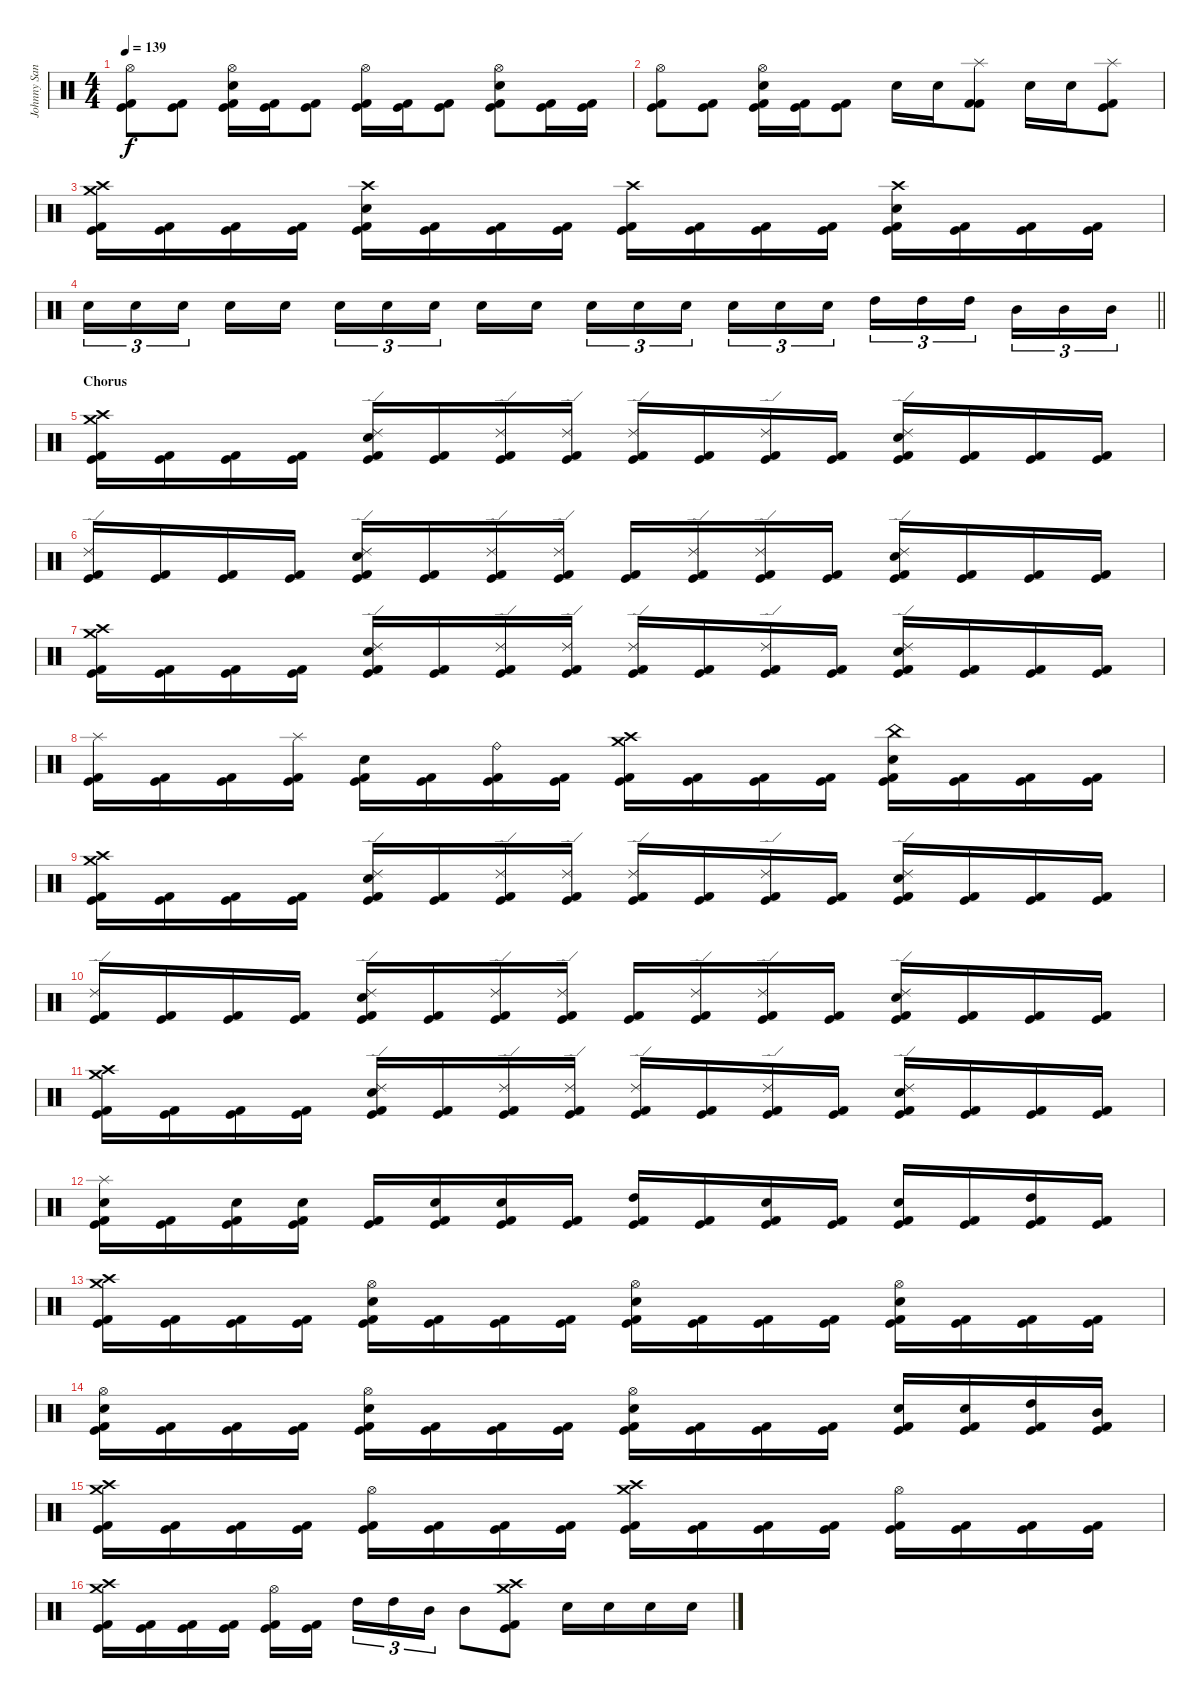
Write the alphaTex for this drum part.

\track ("Johnny Sandin" "Johnny San") {instrument percussion}
\staff {score}
\articulation defaults
\ts (4 4)
\tempo 139
\clef neutral
\ks c
("Hi-Hat (open)" "Kick (hit) 2" "Kick (hit)").8{dy f} ("Kick (hit) 2" "Kick (hit)").8 ("Hi-Hat (open)" "Snare (hit) 2" "Kick (hit) 2" "Kick (hit)").16 ("Kick (hit) 2" "Kick (hit)").16 ("Kick (hit) 2" "Kick (hit)").8 ("Hi-Hat (open)" "Kick (hit) 2" "Kick (hit)").16 ("Kick (hit) 2" "Kick (hit)").16 ("Kick (hit) 2" "Kick (hit)").8 ("Hi-Hat (open)" "Snare (hit) 2" "Kick (hit) 2" "Kick (hit)").8 ("Kick (hit) 2" "Kick (hit)").16 ("Kick (hit) 2" "Kick (hit)").16 |
("Hi-Hat (open)" "Kick (hit) 2" "Kick (hit)").8 ("Kick (hit) 2" "Kick (hit)").8 ("Hi-Hat (open)" "Snare (hit) 2" "Kick (hit) 2" "Kick (hit)").16 ("Kick (hit) 2" "Kick (hit)").16 ("Kick (hit) 2" "Kick (hit)").8 "Snare (hit) 2".16 "Snare (hit) 2".16 ("Splash (hit)" "Kick (hit) 2" "Kick (hit) 2").8 "Snare (hit) 2".16 "Snare (hit) 2".16 ("Splash (hit)" "Kick (hit) 2" "Kick (hit)").8 |
("Crash medium (hit)" "Crash high (hit)" "Kick (hit) 2" "Kick (hit)").16 ("Kick (hit) 2" "Kick (hit)").16 ("Kick (hit) 2" "Kick (hit)").16 ("Kick (hit) 2" "Kick (hit)").16 ("Crash high (hit)" "Snare (hit) 2" "Kick (hit) 2" "Kick (hit)").16 ("Kick (hit) 2" "Kick (hit)").16 ("Kick (hit) 2" "Kick (hit)").16 ("Kick (hit) 2" "Kick (hit)").16 ("Crash high (hit)" "Kick (hit) 2" "Kick (hit)").16 ("Kick (hit) 2" "Kick (hit)").16 ("Kick (hit) 2" "Kick (hit)").16 ("Kick (hit) 2" "Kick (hit)").16 ("Crash high (hit)" "Snare (hit) 2" "Kick (hit) 2" "Kick (hit)").16 ("Kick (hit) 2" "Kick (hit)").16 ("Kick (hit) 2" "Kick (hit)").16 ("Kick (hit) 2" "Kick (hit)").16 |
\barLineRight lightlight "Snare (hit) 2".16{tu (3 2)} "Snare (hit) 2".16{tu (3 2)} "Snare (hit) 2".16{tu (3 2)} "Snare (hit) 2".16 "Snare (hit) 2".16 "Snare (hit) 2".16{tu (3 2)} "Snare (hit) 2".16{tu (3 2)} "Snare (hit) 2".16{tu (3 2)} "Snare (hit) 2".16 "Snare (hit) 2".16 "Snare (hit) 2".16{tu (3 2)} "Snare (hit) 2".16{tu (3 2)} "Snare (hit) 2".16{tu (3 2)} "Snare (hit) 2".16{tu (3 2)} "Snare (hit) 2".16{tu (3 2)} "Snare (hit) 2".16{tu (3 2)} "High Tom (hit)".16{tu (3 2)} "High Tom (hit)".16{tu (3 2)} "High Tom (hit)".16{tu (3 2)} "Mid Tom (hit)".16{tu (3 2)} "Mid Tom (hit)".16{tu (3 2)} "Mid Tom (hit)".16{tu (3 2)}
|
\section ("" "Chorus")
("Crash medium (hit)" "Crash high (hit)" "Kick (hit) 2" "Kick (hit)").16 ("Kick (hit) 2" "Kick (hit)").16 ("Kick (hit) 2" "Kick (hit)").16 ("Kick (hit) 2" "Kick (hit)").16 ("Ride (edge) 2" "Snare (hit) 2" "Kick (hit) 2" "Kick (hit)").16 ("Kick (hit) 2" "Kick (hit)").16 ("Ride (edge) 2" "Kick (hit) 2" "Kick (hit)").16 ("Ride (edge) 2" "Kick (hit) 2" "Kick (hit)").16 ("Ride (edge) 2" "Kick (hit) 2" "Kick (hit)").16 ("Kick (hit) 2" "Kick (hit)").16 ("Ride (edge) 2" "Kick (hit) 2" "Kick (hit)").16 ("Kick (hit) 2" "Kick (hit)").16 ("Ride (edge) 2" "Snare (hit) 2" "Kick (hit) 2" "Kick (hit)").16 ("Kick (hit) 2" "Kick (hit)").16 ("Kick (hit) 2" "Kick (hit)").16 ("Kick (hit) 2" "Kick (hit)").16 |
("Ride (edge) 2" "Kick (hit) 2" "Kick (hit)").16 ("Kick (hit) 2" "Kick (hit)").16 ("Kick (hit) 2" "Kick (hit)").16 ("Kick (hit) 2" "Kick (hit)").16 ("Ride (edge) 2" "Snare (hit) 2" "Kick (hit) 2" "Kick (hit)").16 ("Kick (hit) 2" "Kick (hit)").16 ("Ride (edge) 2" "Kick (hit) 2" "Kick (hit)").16 ("Ride (edge) 2" "Kick (hit) 2" "Kick (hit)").16 ("Kick (hit) 2" "Kick (hit)").16 ("Ride (edge) 2" "Kick (hit) 2" "Kick (hit)").16 ("Ride (edge) 2" "Kick (hit) 2" "Kick (hit)").16 ("Kick (hit) 2" "Kick (hit)").16 ("Ride (edge) 2" "Snare (hit) 2" "Kick (hit) 2" "Kick (hit)").16 ("Kick (hit) 2" "Kick (hit)").16 ("Kick (hit) 2" "Kick (hit)").16 ("Kick (hit) 2" "Kick (hit)").16 |
("Crash medium (hit)" "Crash high (hit)" "Kick (hit) 2" "Kick (hit)").16 ("Kick (hit) 2" "Kick (hit)").16 ("Kick (hit) 2" "Kick (hit)").16 ("Kick (hit) 2" "Kick (hit)").16 ("Ride (edge) 2" "Snare (hit) 2" "Kick (hit) 2" "Kick (hit)").16 ("Kick (hit) 2" "Kick (hit)").16 ("Ride (edge) 2" "Kick (hit) 2" "Kick (hit)").16 ("Ride (edge) 2" "Kick (hit) 2" "Kick (hit)").16 ("Ride (edge) 2" "Kick (hit) 2" "Kick (hit)").16 ("Kick (hit) 2" "Kick (hit)").16 ("Ride (edge) 2" "Kick (hit) 2" "Kick (hit)").16 ("Kick (hit) 2" "Kick (hit)").16 ("Ride (edge) 2" "Snare (hit) 2" "Kick (hit) 2" "Kick (hit)").16 ("Kick (hit) 2" "Kick (hit)").16 ("Kick (hit) 2" "Kick (hit)").16 ("Kick (hit) 2" "Kick (hit)").16 |
("Splash (hit)" "Kick (hit) 2" "Kick (hit)").16 ("Kick (hit) 2" "Kick (hit)").16 ("Kick (hit) 2" "Kick (hit)").16 ("Splash (hit)" "Kick (hit) 2" "Kick (hit)").16 ("Snare (hit) 2" "Kick (hit) 2" "Kick (hit)").16 ("Kick (hit) 2" "Kick (hit)").16 ("Ride (bell)" "Kick (hit) 2" "Kick (hit)").16 ("Kick (hit) 2" "Kick (hit)").16 ("Crash medium (hit)" "Crash high (hit)" "Kick (hit) 2" "Kick (hit)").16 ("Kick (hit) 2" "Kick (hit)").16 ("Kick (hit) 2" "Kick (hit)").16 ("Kick (hit) 2" "Kick (hit)").16 ("China (hit)" "Snare (hit) 2" "Kick (hit) 2" "Kick (hit)").16 ("Kick (hit) 2" "Kick (hit)").16 ("Kick (hit) 2" "Kick (hit)").16 ("Kick (hit) 2" "Kick (hit)").16 |
("Crash medium (hit)" "Crash high (hit)" "Kick (hit) 2" "Kick (hit)").16 ("Kick (hit) 2" "Kick (hit)").16 ("Kick (hit) 2" "Kick (hit)").16 ("Kick (hit) 2" "Kick (hit)").16 ("Ride (edge) 2" "Snare (hit) 2" "Kick (hit) 2" "Kick (hit)").16 ("Kick (hit) 2" "Kick (hit)").16 ("Ride (edge) 2" "Kick (hit) 2" "Kick (hit)").16 ("Ride (edge) 2" "Kick (hit) 2" "Kick (hit)").16 ("Ride (edge) 2" "Kick (hit) 2" "Kick (hit)").16 ("Kick (hit) 2" "Kick (hit)").16 ("Ride (edge) 2" "Kick (hit) 2" "Kick (hit)").16 ("Kick (hit) 2" "Kick (hit)").16 ("Ride (edge) 2" "Snare (hit) 2" "Kick (hit) 2" "Kick (hit)").16 ("Kick (hit) 2" "Kick (hit)").16 ("Kick (hit) 2" "Kick (hit)").16 ("Kick (hit) 2" "Kick (hit)").16 |
("Ride (edge) 2" "Kick (hit) 2" "Kick (hit)").16 ("Kick (hit) 2" "Kick (hit)").16 ("Kick (hit) 2" "Kick (hit)").16 ("Kick (hit) 2" "Kick (hit)").16 ("Ride (edge) 2" "Snare (hit) 2" "Kick (hit) 2" "Kick (hit)").16 ("Kick (hit) 2" "Kick (hit)").16 ("Ride (edge) 2" "Kick (hit) 2" "Kick (hit)").16 ("Ride (edge) 2" "Kick (hit) 2" "Kick (hit)").16 ("Kick (hit) 2" "Kick (hit)").16 ("Ride (edge) 2" "Kick (hit) 2" "Kick (hit)").16 ("Ride (edge) 2" "Kick (hit) 2" "Kick (hit)").16 ("Kick (hit) 2" "Kick (hit)").16 ("Ride (edge) 2" "Snare (hit) 2" "Kick (hit) 2" "Kick (hit)").16 ("Kick (hit) 2" "Kick (hit)").16 ("Kick (hit) 2" "Kick (hit)").16 ("Kick (hit) 2" "Kick (hit)").16 |
("Crash medium (hit)" "Crash high (hit)" "Kick (hit) 2" "Kick (hit)").16 ("Kick (hit) 2" "Kick (hit)").16 ("Kick (hit) 2" "Kick (hit)").16 ("Kick (hit) 2" "Kick (hit)").16 ("Ride (edge) 2" "Snare (hit) 2" "Kick (hit) 2" "Kick (hit)").16 ("Kick (hit) 2" "Kick (hit)").16 ("Ride (edge) 2" "Kick (hit) 2" "Kick (hit)").16 ("Ride (edge) 2" "Kick (hit) 2" "Kick (hit)").16 ("Ride (edge) 2" "Kick (hit) 2" "Kick (hit)").16 ("Kick (hit) 2" "Kick (hit)").16 ("Ride (edge) 2" "Kick (hit) 2" "Kick (hit)").16 ("Kick (hit) 2" "Kick (hit)").16 ("Ride (edge) 2" "Snare (hit) 2" "Kick (hit) 2" "Kick (hit)").16 ("Kick (hit) 2" "Kick (hit)").16 ("Kick (hit) 2" "Kick (hit)").16 ("Kick (hit) 2" "Kick (hit)").16 |
("Splash (hit)" "Snare (hit) 2" "Kick (hit) 2" "Kick (hit)").16 ("Kick (hit) 2" "Kick (hit)").16 ("Snare (hit) 2" "Kick (hit) 2" "Kick (hit)").16 ("Snare (hit) 2" "Kick (hit) 2" "Kick (hit)").16 ("Kick (hit) 2" "Kick (hit)").16 ("Snare (hit) 2" "Kick (hit) 2" "Kick (hit)").16 ("Snare (hit) 2" "Kick (hit) 2" "Kick (hit)").16 ("Kick (hit) 2" "Kick (hit)").16 ("High Tom (hit)" "Kick (hit) 2" "Kick (hit)").16 ("Kick (hit) 2" "Kick (hit)").16 ("Snare (hit) 2" "Kick (hit) 2" "Kick (hit)").16 ("Kick (hit) 2" "Kick (hit)").16 ("Snare (hit) 2" "Kick (hit) 2" "Kick (hit)").16 ("Kick (hit) 2" "Kick (hit)").16 ("High Tom (hit)" "Kick (hit) 2" "Kick (hit)").16 ("Kick (hit) 2" "Kick (hit)").16 |
("Crash medium (hit)" "Crash high (hit)" "Kick (hit) 2" "Kick (hit)").16 ("Kick (hit) 2" "Kick (hit)").16 ("Kick (hit) 2" "Kick (hit)").16 ("Kick (hit) 2" "Kick (hit)").16 ("Hi-Hat (open)" "Snare (hit) 2" "Kick (hit) 2" "Kick (hit)").16 ("Kick (hit) 2" "Kick (hit)").16 ("Kick (hit) 2" "Kick (hit)").16 ("Kick (hit) 2" "Kick (hit)").16 ("Hi-Hat (open)" "Snare (hit) 2" "Kick (hit) 2" "Kick (hit)").16 ("Kick (hit) 2" "Kick (hit)").16 ("Kick (hit) 2" "Kick (hit)").16 ("Kick (hit) 2" "Kick (hit)").16 ("Hi-Hat (open)" "Snare (hit) 2" "Kick (hit) 2" "Kick (hit)").16 ("Kick (hit) 2" "Kick (hit)").16 ("Kick (hit) 2" "Kick (hit)").16 ("Kick (hit) 2" "Kick (hit)").16 |
("Hi-Hat (open)" "Snare (hit) 2" "Kick (hit) 2" "Kick (hit)").16 ("Kick (hit) 2" "Kick (hit)").16 ("Kick (hit) 2" "Kick (hit)").16 ("Kick (hit) 2" "Kick (hit)").16 ("Hi-Hat (open)" "Snare (hit) 2" "Kick (hit) 2" "Kick (hit)").16 ("Kick (hit) 2" "Kick (hit)").16 ("Kick (hit) 2" "Kick (hit)").16 ("Kick (hit) 2" "Kick (hit)").16 ("Hi-Hat (open)" "Snare (hit) 2" "Kick (hit) 2" "Kick (hit)").16 ("Kick (hit) 2" "Kick (hit)").16 ("Kick (hit) 2" "Kick (hit)").16 ("Kick (hit) 2" "Kick (hit)").16 ("Snare (hit) 2" "Kick (hit) 2" "Kick (hit)").16 ("Snare (hit) 2" "Kick (hit) 2" "Kick (hit)").16 ("High Tom (hit)" "Kick (hit) 2" "Kick (hit)").16 ("Mid Tom (hit)" "Kick (hit) 2" "Kick (hit)").16 |
("Crash medium (hit)" "Crash high (hit)" "Kick (hit) 2" "Kick (hit)").16 ("Kick (hit) 2" "Kick (hit)").16 ("Kick (hit) 2" "Kick (hit)").16 ("Kick (hit) 2" "Kick (hit)").16 ("Hi-Hat (open)" "Kick (hit) 2" "Kick (hit)").16 ("Kick (hit) 2" "Kick (hit)").16 ("Kick (hit) 2" "Kick (hit)").16 ("Kick (hit) 2" "Kick (hit)").16 ("Crash medium (hit)" "Crash high (hit)" "Kick (hit) 2" "Kick (hit)").16 ("Kick (hit) 2" "Kick (hit)").16 ("Kick (hit) 2" "Kick (hit)").16 ("Kick (hit) 2" "Kick (hit)").16 ("Hi-Hat (open)" "Kick (hit) 2" "Kick (hit)").16 ("Kick (hit) 2" "Kick (hit)").16 ("Kick (hit) 2" "Kick (hit)").16 ("Kick (hit) 2" "Kick (hit)").16 |
("Crash medium (hit)" "Crash high (hit)" "Kick (hit) 2" "Kick (hit)").16 ("Kick (hit) 2" "Kick (hit)").16 ("Kick (hit) 2" "Kick (hit)").16 ("Kick (hit) 2" "Kick (hit)").16 ("Hi-Hat (open)" "Kick (hit) 2" "Kick (hit)").16 ("Kick (hit) 2" "Kick (hit)").16 "High Tom (hit)".16{tu (3 2)} "High Tom (hit)".16{tu (3 2)} "Mid Tom (hit)".16{tu (3 2)} "Mid Tom (hit)".8 ("Crash medium (hit)" "Crash high (hit)" "Kick (hit) 2" "Kick (hit)").8 "Snare (hit) 2".16 "Snare (hit) 2".16 "Snare (hit) 2".16 "Snare (hit) 2".16
